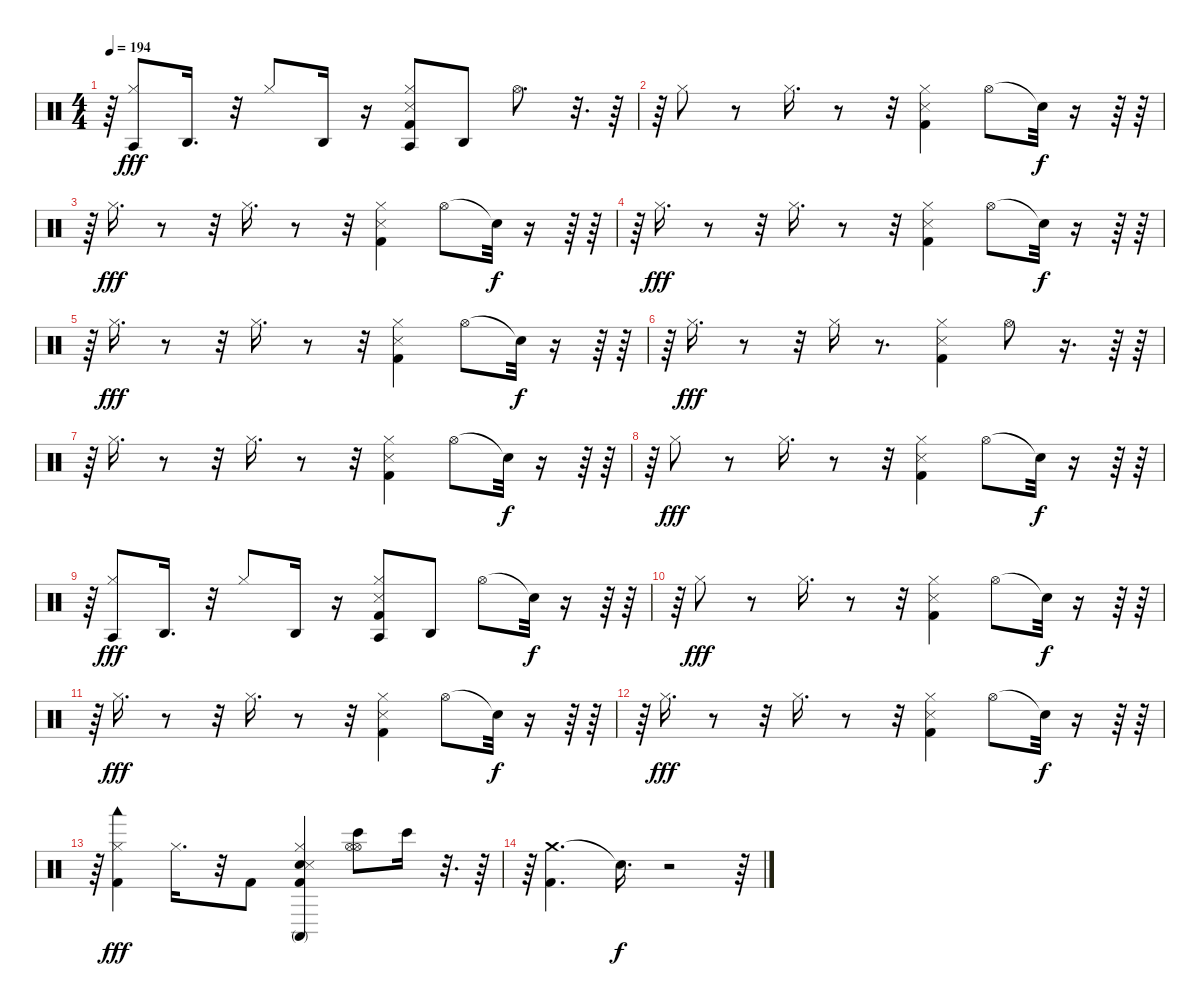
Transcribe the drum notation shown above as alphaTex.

\track "" {instrument percussion}
\staff {score}
\articulation defaults
\ts (4 4)
\tempo 194
\clef neutral
\ks c
r.64{dy f} ("Hi-Hat (closed)" "Agogo tow (hit)").8{dy fff} "Agogo high (hit)".16{d} r.32 "Hi-Hat (closed)".8 "Agogo high (hit)".16 r.16 ("Agogo tow (hit)" "Hi-Hat (closed)" "Snare (side stick) 3" "Kick (hit) 2").8 "Agogo high (hit)".8 "Hi-Hat (open)".8{d} r.32{d} r.64 |
r.64 "Hi-Hat (closed)".8 r.8 "Hi-Hat (closed)".16{d} r.8 r.32 ("Snare (side stick) 3" "Kick (hit) 2" "Hi-Hat (closed)").4 "Hi-Hat (open)".8 "Snare (hit)"{t}.32{dy f} r.16 r.64 r.64 |
r.64 "Hi-Hat (closed)".16{d dy fff} r.8 r.32 "Hi-Hat (closed)".16{d} r.8 r.32 ("Snare (side stick) 3" "Kick (hit) 2" "Hi-Hat (closed)").4 "Hi-Hat (open)".8 "Snare (hit)"{t}.32{dy f} r.16 r.64 r.64 |
r.64 "Hi-Hat (closed)".16{d dy fff} r.8 r.32 "Hi-Hat (closed)".16{d} r.8 r.32 ("Kick (hit) 2" "Snare (side stick) 3" "Hi-Hat (closed)").4 "Hi-Hat (open)".8 "Snare (hit)"{t}.32{dy f} r.16 r.64 r.64 |
r.64 "Hi-Hat (closed)".16{d dy fff} r.8 r.32 "Hi-Hat (closed)".16{d} r.8 r.32 ("Kick (hit) 2" "Hi-Hat (closed)" "Snare (side stick) 3").4 "Hi-Hat (open)".8 "Snare (hit)"{t}.32{dy f} r.16 r.64 r.64 |
r.64 "Hi-Hat (closed)".16{d dy fff} r.8 r.32 "Hi-Hat (closed)".16 r.8{d} ("Kick (hit) 2" "Snare (side stick) 3" "Hi-Hat (closed)").4 "Hi-Hat (open)".8 r.16{d} r.64 r.64 |
r.64 "Hi-Hat (closed)".16{d} r.8 r.32 "Hi-Hat (closed)".16{d} r.8 r.32 ("Kick (hit) 2" "Snare (side stick) 3" "Hi-Hat (closed)").4 "Hi-Hat (open)".8 "Snare (hit)"{t}.32{dy f} r.16 r.64 r.64 |
r.64 "Hi-Hat (closed)".8{dy fff} r.8 "Hi-Hat (closed)".16{d} r.8 r.32 ("Kick (hit) 2" "Snare (side stick) 3" "Hi-Hat (closed)").4 "Hi-Hat (open)".8 "Snare (hit)"{t}.32{dy f} r.16 r.64 r.64 |
r.64 ("Hi-Hat (closed)" "Agogo tow (hit)").8{dy fff} "Agogo high (hit)".16{d} r.32 "Hi-Hat (closed)".8 "Agogo high (hit)".16 r.16 ("Kick (hit) 2" "Agogo tow (hit)" "Hi-Hat (closed)" "Snare (side stick) 3").8 "Agogo high (hit)".8 "Hi-Hat (open)".8 "Snare (hit)"{t}.32{dy f} r.16 r.64 r.64 |
r.64 "Hi-Hat (closed)".8{dy fff} r.8 "Hi-Hat (closed)".16{d} r.8 r.32 ("Kick (hit) 2" "Snare (side stick) 3" "Hi-Hat (closed)").4 "Hi-Hat (open)".8 "Snare (hit)"{t}.32{dy f} r.16 r.64 r.64 |
r.64 "Hi-Hat (closed)".16{d dy fff} r.8 r.32 "Hi-Hat (closed)".16{d} r.8 r.32 ("Kick (hit) 2" "Snare (side stick) 3" "Hi-Hat (closed)").4 "Hi-Hat (open)".8 "Snare (hit)"{t}.32{dy f} r.16 r.64 r.64 |
r.64 "Hi-Hat (closed)".16{d dy fff} r.8 r.32 "Hi-Hat (closed)".16{d} r.8 r.32 ("Kick (hit) 2" "Snare (side stick) 3" "Hi-Hat (closed)").4 "Hi-Hat (open)".8 "Snare (hit)"{t}.32{dy f} r.16 r.64 r.64 |
r.64 ("Kick (hit) 2" "Hi-Hat (closed)" "Woodblock low (hit)").4{dy fff} "Hi-Hat (closed)".16{d} r.32 "Kick (hit) 2".8 ("Snare (hit) 2" "Kick (hit) 2" "Hi-Hat (closed)" "Snare (side stick) 3" "Conga high (mute)").4 ("Hi-Hat (open)" "Hi-Hat (open)" "Bongo High (hit)").8 "Bongo High (hit)".16 r.32{d} r.64 |
r.64 ("Crash medium (hit)" "Kick (hit) 2").4{d} "Snare (hit)"{t}.16{d dy f} r.2 r.64
